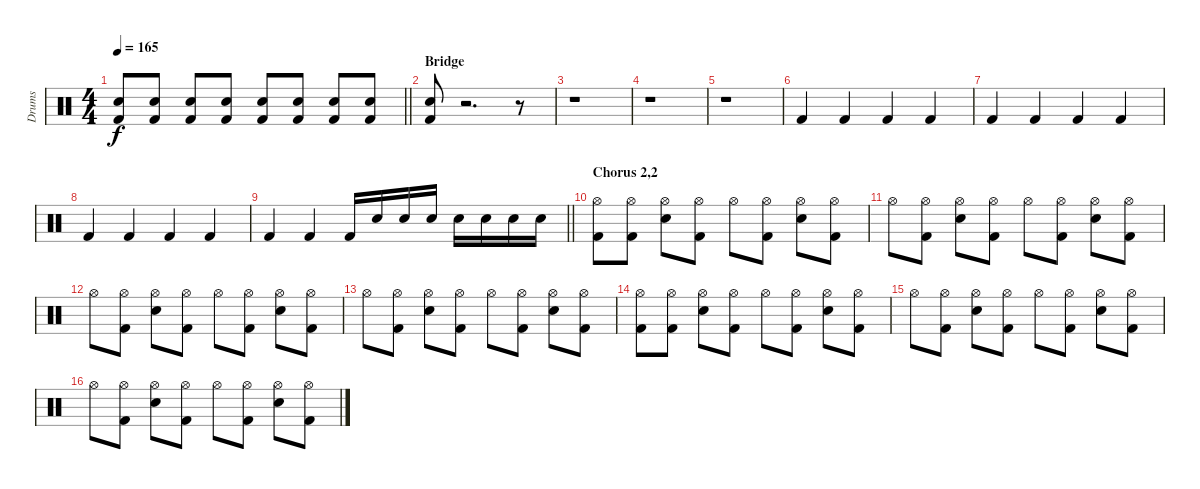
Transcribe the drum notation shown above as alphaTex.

\track ("Drums" "Drums") {instrument percussion}
\staff {score}
\articulation defaults
\ts (4 4)
\tempo 165
\clef neutral
\barLineRight lightlight
\ks c
("Snare (hit) 2" "Kick (hit) 2").8{dy f} ("Snare (hit) 2" "Kick (hit) 2").8 ("Snare (hit) 2" "Kick (hit) 2").8 ("Snare (hit) 2" "Kick (hit) 2").8 ("Snare (hit) 2" "Kick (hit) 2").8 ("Snare (hit) 2" "Kick (hit) 2").8 ("Snare (hit) 2" "Kick (hit) 2").8 ("Snare (hit) 2" "Kick (hit) 2").8 |
\section ("" "Bridge")
("Snare (hit) 2" "Kick (hit) 2").8 r.2{d} r.8 |
r.1 |
r.1 |
r.1 |
"Kick (hit) 2".4 "Kick (hit) 2".4 "Kick (hit) 2".4 "Kick (hit) 2".4 |
"Kick (hit) 2".4 "Kick (hit) 2".4 "Kick (hit) 2".4 "Kick (hit) 2".4 |
"Kick (hit) 2".4 "Kick (hit) 2".4 "Kick (hit) 2".4 "Kick (hit) 2".4 |
\barLineRight lightlight "Kick (hit) 2".4 "Kick (hit) 2".4 "Kick (hit) 2".16 "Snare (hit) 2".16 "Snare (hit) 2".16 "Snare (hit) 2".16 "Snare (hit) 2".16 "Snare (hit) 2".16 "Snare (hit) 2".16 "Snare (hit) 2".16
|
\section ("" "Chorus 2,2")
("Kick (hit) 2" "Hi-Hat (open)").8 ("Kick (hit) 2" "Hi-Hat (open)").8 ("Snare (hit) 2" "Hi-Hat (open)").8 ("Kick (hit) 2" "Hi-Hat (open)").8 "Hi-Hat (open)".8 ("Kick (hit) 2" "Hi-Hat (open)").8 ("Snare (hit) 2" "Hi-Hat (open)").8 ("Kick (hit) 2" "Hi-Hat (open)").8 |
"Hi-Hat (open)".8 ("Hi-Hat (open)" "Kick (hit) 2").8 ("Hi-Hat (open)" "Snare (hit) 2").8 ("Hi-Hat (open)" "Kick (hit) 2").8 "Hi-Hat (open)".8 ("Hi-Hat (open)" "Kick (hit) 2").8 ("Hi-Hat (open)" "Snare (hit) 2").8 ("Hi-Hat (open)" "Kick (hit) 2").8 |
"Hi-Hat (open)".8 ("Hi-Hat (open)" "Kick (hit) 2").8 ("Hi-Hat (open)" "Snare (hit) 2").8 ("Hi-Hat (open)" "Kick (hit) 2").8 "Hi-Hat (open)".8 ("Hi-Hat (open)" "Kick (hit) 2").8 ("Hi-Hat (open)" "Snare (hit) 2").8 ("Hi-Hat (open)" "Kick (hit) 2").8 |
"Hi-Hat (open)".8 ("Hi-Hat (open)" "Kick (hit) 2").8 ("Hi-Hat (open)" "Snare (hit) 2").8 ("Hi-Hat (open)" "Kick (hit) 2").8 "Hi-Hat (open)".8 ("Hi-Hat (open)" "Kick (hit) 2").8 ("Hi-Hat (open)" "Snare (hit) 2").8 ("Hi-Hat (open)" "Kick (hit) 2").8 |
("Hi-Hat (open)" "Kick (hit) 2").8 ("Hi-Hat (open)" "Kick (hit) 2").8 ("Hi-Hat (open)" "Snare (hit) 2").8 ("Hi-Hat (open)" "Kick (hit) 2").8 "Hi-Hat (open)".8 ("Hi-Hat (open)" "Kick (hit) 2").8 ("Hi-Hat (open)" "Snare (hit) 2").8 ("Hi-Hat (open)" "Kick (hit) 2").8 |
"Hi-Hat (open)".8 ("Hi-Hat (open)" "Kick (hit) 2").8 ("Hi-Hat (open)" "Snare (hit) 2").8 ("Hi-Hat (open)" "Kick (hit) 2").8 "Hi-Hat (open)".8 ("Hi-Hat (open)" "Kick (hit) 2").8 ("Hi-Hat (open)" "Snare (hit) 2").8 ("Hi-Hat (open)" "Kick (hit) 2").8 |
"Hi-Hat (open)".8 ("Hi-Hat (open)" "Kick (hit) 2").8 ("Hi-Hat (open)" "Snare (hit) 2").8 ("Hi-Hat (open)" "Kick (hit) 2").8 "Hi-Hat (open)".8 ("Hi-Hat (open)" "Kick (hit) 2").8 ("Hi-Hat (open)" "Snare (hit) 2").8 ("Hi-Hat (open)" "Kick (hit) 2").8
